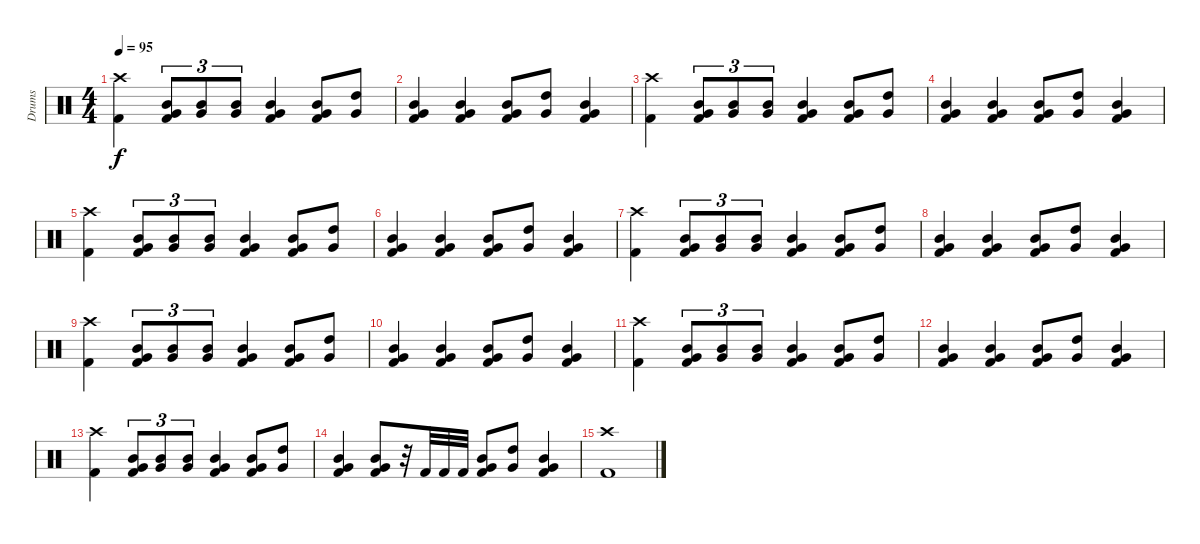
\track ("Drums" "Drums") {instrument percussion}
\staff {score}
\articulation defaults
\ts (4 4)
\tempo 95
\clef neutral
\ks c
("Crash high (hit)" "Kick (hit) 2").4{dy f} ("Mid Tom (hit)" "Very Low Tom (hit)" "Kick (hit) 2").8{tu (3 2)} ("Mid Tom (hit)" "Very Low Tom (hit)").8{tu (3 2)} ("Mid Tom (hit)" "Very Low Tom (hit)").8{tu (3 2)} ("Mid Tom (hit)" "Very Low Tom (hit)" "Kick (hit) 2").4 ("Mid Tom (hit)" "Very Low Tom (hit)" "Kick (hit) 2").8 ("High Tom (hit)" "Very Low Tom (hit)").8 |
("Mid Tom (hit)" "Very Low Tom (hit)" "Kick (hit) 2").4 ("Mid Tom (hit)" "Very Low Tom (hit)" "Kick (hit) 2").4 ("Mid Tom (hit)" "Very Low Tom (hit)" "Kick (hit) 2").8 ("High Tom (hit)" "Very Low Tom (hit)").8 ("Mid Tom (hit)" "Very Low Tom (hit)" "Kick (hit) 2").4 |
("Crash high (hit)" "Kick (hit) 2").4 ("Mid Tom (hit)" "Very Low Tom (hit)" "Kick (hit) 2").8{tu (3 2)} ("Mid Tom (hit)" "Very Low Tom (hit)").8{tu (3 2)} ("Mid Tom (hit)" "Very Low Tom (hit)").8{tu (3 2)} ("Mid Tom (hit)" "Very Low Tom (hit)" "Kick (hit) 2").4 ("Mid Tom (hit)" "Very Low Tom (hit)" "Kick (hit) 2").8 ("High Tom (hit)" "Very Low Tom (hit)").8 |
("Mid Tom (hit)" "Very Low Tom (hit)" "Kick (hit) 2").4 ("Mid Tom (hit)" "Very Low Tom (hit)" "Kick (hit) 2").4 ("Mid Tom (hit)" "Very Low Tom (hit)" "Kick (hit) 2").8 ("High Tom (hit)" "Very Low Tom (hit)").8 ("Mid Tom (hit)" "Very Low Tom (hit)" "Kick (hit) 2").4 |
("Crash high (hit)" "Kick (hit) 2").4 ("Mid Tom (hit)" "Very Low Tom (hit)" "Kick (hit) 2").8{tu (3 2)} ("Mid Tom (hit)" "Very Low Tom (hit)").8{tu (3 2)} ("Mid Tom (hit)" "Very Low Tom (hit)").8{tu (3 2)} ("Mid Tom (hit)" "Very Low Tom (hit)" "Kick (hit) 2").4 ("Mid Tom (hit)" "Very Low Tom (hit)" "Kick (hit) 2").8 ("High Tom (hit)" "Very Low Tom (hit)").8 |
("Mid Tom (hit)" "Very Low Tom (hit)" "Kick (hit) 2").4 ("Mid Tom (hit)" "Very Low Tom (hit)" "Kick (hit) 2").4 ("Mid Tom (hit)" "Very Low Tom (hit)" "Kick (hit) 2").8 ("High Tom (hit)" "Very Low Tom (hit)").8 ("Mid Tom (hit)" "Very Low Tom (hit)" "Kick (hit) 2").4 |
("Crash high (hit)" "Kick (hit) 2").4 ("Mid Tom (hit)" "Very Low Tom (hit)" "Kick (hit) 2").8{tu (3 2)} ("Mid Tom (hit)" "Very Low Tom (hit)").8{tu (3 2)} ("Mid Tom (hit)" "Very Low Tom (hit)").8{tu (3 2)} ("Mid Tom (hit)" "Very Low Tom (hit)" "Kick (hit) 2").4 ("Mid Tom (hit)" "Very Low Tom (hit)" "Kick (hit) 2").8 ("High Tom (hit)" "Very Low Tom (hit)").8 |
("Mid Tom (hit)" "Very Low Tom (hit)" "Kick (hit) 2").4 ("Mid Tom (hit)" "Very Low Tom (hit)" "Kick (hit) 2").4 ("Mid Tom (hit)" "Very Low Tom (hit)" "Kick (hit) 2").8 ("High Tom (hit)" "Very Low Tom (hit)").8 ("Mid Tom (hit)" "Very Low Tom (hit)" "Kick (hit) 2").4 |
("Crash high (hit)" "Kick (hit) 2").4 ("Mid Tom (hit)" "Very Low Tom (hit)" "Kick (hit) 2").8{tu (3 2)} ("Mid Tom (hit)" "Very Low Tom (hit)").8{tu (3 2)} ("Mid Tom (hit)" "Very Low Tom (hit)").8{tu (3 2)} ("Mid Tom (hit)" "Very Low Tom (hit)" "Kick (hit) 2").4 ("Mid Tom (hit)" "Very Low Tom (hit)" "Kick (hit) 2").8 ("High Tom (hit)" "Very Low Tom (hit)").8 |
("Mid Tom (hit)" "Very Low Tom (hit)" "Kick (hit) 2").4 ("Mid Tom (hit)" "Very Low Tom (hit)" "Kick (hit) 2").4 ("Mid Tom (hit)" "Very Low Tom (hit)" "Kick (hit) 2").8 ("High Tom (hit)" "Very Low Tom (hit)").8 ("Mid Tom (hit)" "Very Low Tom (hit)" "Kick (hit) 2").4 |
("Crash high (hit)" "Kick (hit) 2").4 ("Mid Tom (hit)" "Very Low Tom (hit)" "Kick (hit) 2").8{tu (3 2)} ("Mid Tom (hit)" "Very Low Tom (hit)").8{tu (3 2)} ("Mid Tom (hit)" "Very Low Tom (hit)").8{tu (3 2)} ("Mid Tom (hit)" "Very Low Tom (hit)" "Kick (hit) 2").4 ("Mid Tom (hit)" "Very Low Tom (hit)" "Kick (hit) 2").8 ("High Tom (hit)" "Very Low Tom (hit)").8 |
("Mid Tom (hit)" "Very Low Tom (hit)" "Kick (hit) 2").4 ("Mid Tom (hit)" "Very Low Tom (hit)" "Kick (hit) 2").4 ("Mid Tom (hit)" "Very Low Tom (hit)" "Kick (hit) 2").8 ("High Tom (hit)" "Very Low Tom (hit)").8 ("Mid Tom (hit)" "Very Low Tom (hit)" "Kick (hit) 2").4 |
("Crash high (hit)" "Kick (hit) 2").4 ("Mid Tom (hit)" "Very Low Tom (hit)" "Kick (hit) 2").8{tu (3 2)} ("Mid Tom (hit)" "Very Low Tom (hit)").8{tu (3 2)} ("Mid Tom (hit)" "Very Low Tom (hit)").8{tu (3 2)} ("Mid Tom (hit)" "Very Low Tom (hit)" "Kick (hit) 2").4 ("Mid Tom (hit)" "Very Low Tom (hit)" "Kick (hit) 2").8 ("High Tom (hit)" "Very Low Tom (hit)").8 |
("Mid Tom (hit)" "Very Low Tom (hit)" "Kick (hit) 2").4 ("Mid Tom (hit)" "Very Low Tom (hit)" "Kick (hit) 2").8 r.32 "Kick (hit) 2".32 "Kick (hit) 2".32 "Kick (hit) 2".32 ("Mid Tom (hit)" "Very Low Tom (hit)" "Kick (hit) 2").8 ("High Tom (hit)" "Very Low Tom (hit)").8 ("Mid Tom (hit)" "Very Low Tom (hit)" "Kick (hit) 2").4 |
("Crash high (hit)" "Kick (hit) 2").1
